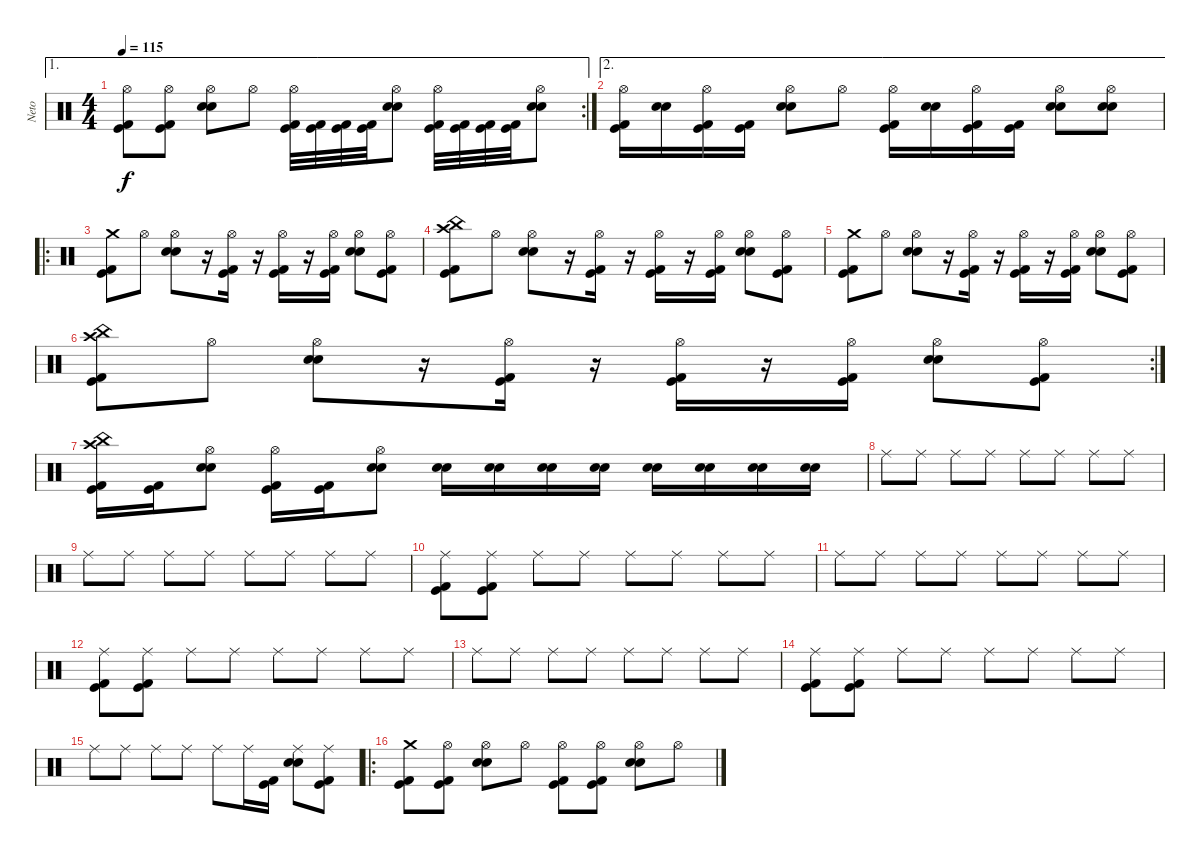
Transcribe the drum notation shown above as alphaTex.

\track ("Neto" "Neto") {instrument percussion}
\staff {score}
\articulation defaults
\ae 1
\rc 2
\ts (4 4)
\tempo 115
\clef neutral
\ks c
("Hi-Hat (open)" "Kick (hit)" "Kick (hit) 2").8{dy f} ("Hi-Hat (open)" "Kick (hit)" "Kick (hit) 2").8 ("Hi-Hat (open)" "Snare (hit) 2" "Snare (hit) 2").8 "Hi-Hat (open)".8 ("Hi-Hat (open)" "Kick (hit)" "Kick (hit) 2").32 ("Kick (hit)" "Kick (hit) 2").32 ("Kick (hit)" "Kick (hit) 2").32 ("Kick (hit)" "Kick (hit) 2").32 ("Hi-Hat (open)" "Snare (hit) 2" "Snare (hit) 2").8 ("Hi-Hat (open)" "Kick (hit)" "Kick (hit) 2").32 ("Kick (hit)" "Kick (hit) 2").32 ("Kick (hit)" "Kick (hit) 2").32 ("Kick (hit)" "Kick (hit) 2").32 ("Hi-Hat (open)" "Snare (hit) 2" "Snare (hit) 2").8 |
\ae 2
("Hi-Hat (open)" "Kick (hit)" "Kick (hit) 2").16 ("Snare (hit) 2" "Snare (hit) 2").16 ("Hi-Hat (open)" "Kick (hit)" "Kick (hit) 2").16 ("Kick (hit)" "Kick (hit) 2").16 ("Hi-Hat (open)" "Snare (hit) 2" "Snare (hit) 2").8 "Hi-Hat (open)".8 ("Hi-Hat (open)" "Kick (hit)" "Kick (hit) 2").16 ("Snare (hit) 2" "Snare (hit) 2").16 ("Hi-Hat (open)" "Kick (hit)" "Kick (hit) 2").16 ("Kick (hit)" "Kick (hit) 2").16 ("Hi-Hat (open)" "Snare (hit) 2" "Snare (hit) 2").8 ("Hi-Hat (open)" "Snare (hit) 2" "Snare (hit) 2").8 |
\ro
("Crash medium (hit)" "Kick (hit)" "Kick (hit) 2").8 "Hi-Hat (open)".8 ("Hi-Hat (open)" "Snare (hit) 2" "Snare (hit) 2").8 r.16 ("Hi-Hat (open)" "Kick (hit)" "Kick (hit) 2").16 r.16 ("Hi-Hat (open)" "Kick (hit)" "Kick (hit) 2").16 r.16 ("Hi-Hat (open)" "Kick (hit)" "Kick (hit) 2").16 ("Hi-Hat (open)" "Snare (hit) 2" "Snare (hit) 2").8 ("Hi-Hat (open)" "Kick (hit)" "Kick (hit) 2").8 |
("Crash high (hit)" "China (hit)" "Kick (hit)" "Kick (hit) 2").8 "Hi-Hat (open)".8 ("Hi-Hat (open)" "Snare (hit) 2" "Snare (hit) 2").8 r.16 ("Hi-Hat (open)" "Kick (hit)" "Kick (hit) 2").16 r.16 ("Hi-Hat (open)" "Kick (hit)" "Kick (hit) 2").16 r.16 ("Hi-Hat (open)" "Kick (hit)" "Kick (hit) 2").16 ("Hi-Hat (open)" "Snare (hit) 2" "Snare (hit) 2").8 ("Hi-Hat (open)" "Kick (hit)" "Kick (hit) 2").8 |
("Crash medium (hit)" "Kick (hit)" "Kick (hit) 2").8 "Hi-Hat (open)".8 ("Hi-Hat (open)" "Snare (hit) 2" "Snare (hit) 2").8 r.16 ("Hi-Hat (open)" "Kick (hit)" "Kick (hit) 2").16 r.16 ("Hi-Hat (open)" "Kick (hit)" "Kick (hit) 2").16 r.16 ("Hi-Hat (open)" "Kick (hit)" "Kick (hit) 2").16 ("Hi-Hat (open)" "Snare (hit) 2" "Snare (hit) 2").8 ("Hi-Hat (open)" "Kick (hit)" "Kick (hit) 2").8 |
\rc 2
("Crash high (hit)" "China (hit)" "Kick (hit)" "Kick (hit) 2").8 "Hi-Hat (open)".8 ("Hi-Hat (open)" "Snare (hit) 2" "Snare (hit) 2").8 r.16 ("Hi-Hat (open)" "Kick (hit)" "Kick (hit) 2").16 r.16 ("Hi-Hat (open)" "Kick (hit)" "Kick (hit) 2").16 r.16 ("Hi-Hat (open)" "Kick (hit)" "Kick (hit) 2").16 ("Hi-Hat (open)" "Snare (hit) 2" "Snare (hit) 2").8 ("Hi-Hat (open)" "Kick (hit)" "Kick (hit) 2").8 |
("Crash high (hit)" "China (hit)" "Kick (hit)" "Kick (hit) 2").16 ("Kick (hit)" "Kick (hit) 2").16 ("Hi-Hat (open)" "Snare (hit) 2" "Snare (hit) 2").8 ("Hi-Hat (open)" "Kick (hit)" "Kick (hit) 2").16 ("Kick (hit)" "Kick (hit) 2").16 ("Hi-Hat (open)" "Snare (hit) 2" "Snare (hit) 2").8 ("Snare (hit) 2" "Snare (hit) 2").16 ("Snare (hit) 2" "Snare (hit) 2").16 ("Snare (hit) 2" "Snare (hit) 2").16 ("Snare (hit) 2" "Snare (hit) 2").16 ("Snare (hit) 2" "Snare (hit) 2").16 ("Snare (hit) 2" "Snare (hit) 2").16 ("Snare (hit) 2" "Snare (hit) 2").16 ("Snare (hit) 2" "Snare (hit) 2").16 |
"Ride (middle)".8 "Ride (middle)".8 "Ride (middle)".8 "Ride (middle)".8 "Ride (middle)".8 "Ride (middle)".8 "Ride (middle)".8 "Ride (middle)".8 |
"Ride (middle)".8 "Ride (middle)".8 "Ride (middle)".8 "Ride (middle)".8 "Ride (middle)".8 "Ride (middle)".8 "Ride (middle)".8 "Ride (middle)".8 |
("Ride (middle)" "Kick (hit)" "Kick (hit) 2").8 ("Ride (middle)" "Kick (hit)" "Kick (hit) 2").8 "Ride (middle)".8 "Ride (middle)".8 "Ride (middle)".8 "Ride (middle)".8 "Ride (middle)".8 "Ride (middle)".8 |
"Ride (middle)".8 "Ride (middle)".8 "Ride (middle)".8 "Ride (middle)".8 "Ride (middle)".8 "Ride (middle)".8 "Ride (middle)".8 "Ride (middle)".8 |
("Ride (middle)" "Kick (hit)" "Kick (hit) 2").8 ("Ride (middle)" "Kick (hit)" "Kick (hit) 2").8 "Ride (middle)".8 "Ride (middle)".8 "Ride (middle)".8 "Ride (middle)".8 "Ride (middle)".8 "Ride (middle)".8 |
"Ride (middle)".8 "Ride (middle)".8 "Ride (middle)".8 "Ride (middle)".8 "Ride (middle)".8 "Ride (middle)".8 "Ride (middle)".8 "Ride (middle)".8 |
("Ride (middle)" "Kick (hit)" "Kick (hit) 2").8 ("Ride (middle)" "Kick (hit)" "Kick (hit) 2").8 "Ride (middle)".8 "Ride (middle)".8 "Ride (middle)".8 "Ride (middle)".8 "Ride (middle)".8 "Ride (middle)".8 |
"Ride (middle)".8 "Ride (middle)".8 "Ride (middle)".8 "Ride (middle)".8 "Ride (middle)".8 "Ride (middle)".16 ("Kick (hit)" "Kick (hit) 2").16 ("Ride (middle)" "Snare (hit) 2" "Snare (hit) 2").8 ("Ride (middle)" "Kick (hit)" "Kick (hit) 2").8 |
\ro
("Crash medium (hit)" "Kick (hit)" "Kick (hit) 2").8 ("Hi-Hat (open)" "Kick (hit)" "Kick (hit) 2").8 ("Hi-Hat (open)" "Snare (hit) 2" "Snare (hit) 2").8 "Hi-Hat (open)".8 ("Hi-Hat (open)" "Kick (hit)" "Kick (hit) 2").8 ("Hi-Hat (open)" "Kick (hit)" "Kick (hit) 2").8 ("Hi-Hat (open)" "Snare (hit) 2" "Snare (hit) 2").8 "Hi-Hat (open)".8
